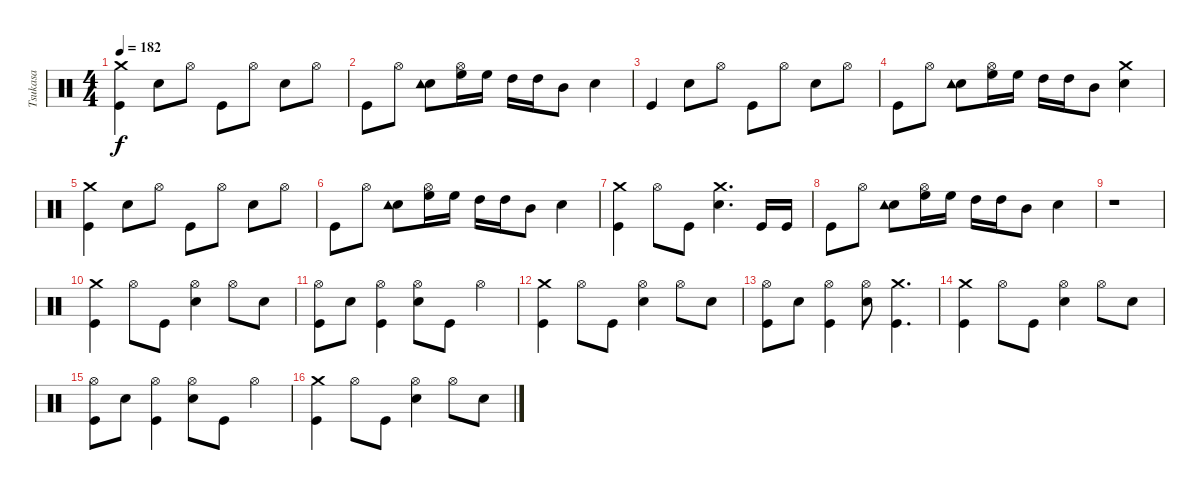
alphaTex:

\track ("Tsukasa" "Tsukasa") {instrument percussion}
\staff {score}
\articulation defaults
\ts (4 4)
\tempo 182
\clef neutral
\ks c
("Kick (hit)" "Crash medium (hit)").4{dy f} "Electric Snare (hit)".8 "Hi-Hat (open)".8 "Kick (hit)".8 "Hi-Hat (open)".8 "Electric Snare (hit)".8 "Hi-Hat (open)".8 |
"Kick (hit)".8 "Hi-Hat (open)".8 ("Electric Snare (hit)" "Tambourine (hit)").8 ("High Floor Tom (hit)" "Hi-Hat (open)").16 "High Floor Tom (hit)".16 "High Tom (hit)".16 "High Tom (hit)".16 "Mid Tom (hit)".8 "Electric Snare (hit)".4 |
"Kick (hit)".4 "Electric Snare (hit)".8 "Hi-Hat (open)".8 "Kick (hit)".8 "Hi-Hat (open)".8 "Electric Snare (hit)".8 "Hi-Hat (open)".8 |
"Kick (hit)".8 "Hi-Hat (open)".8 ("Electric Snare (hit)" "Tambourine (hit)").8 ("High Floor Tom (hit)" "Hi-Hat (open)").16 "High Floor Tom (hit)".16 "High Tom (hit)".16 "High Tom (hit)".16 "Mid Tom (hit)".8 ("Electric Snare (hit)" "Crash medium (hit)").4 |
("Kick (hit)" "Crash medium (hit)").4 "Electric Snare (hit)".8 "Hi-Hat (open)".8 "Kick (hit)".8 "Hi-Hat (open)".8 "Electric Snare (hit)".8 "Hi-Hat (open)".8 |
"Kick (hit)".8 "Hi-Hat (open)".8 ("Electric Snare (hit)" "Tambourine (hit)").8 ("High Floor Tom (hit)" "Hi-Hat (open)").16 "High Floor Tom (hit)".16 "High Tom (hit)".16 "High Tom (hit)".16 "Mid Tom (hit)".8 "Electric Snare (hit)".4 |
("Kick (hit)" "Crash medium (hit)").4 "Hi-Hat (open)".8 "Kick (hit)".8 ("Electric Snare (hit)" "Crash medium (hit)").4{d} "Kick (hit)".16 "Kick (hit)".16 |
"Kick (hit)".8 "Hi-Hat (open)".8 ("Electric Snare (hit)" "Tambourine (hit)").8 ("High Floor Tom (hit)" "Hi-Hat (open)").16 "High Floor Tom (hit)".16 "High Tom (hit)".16 "High Tom (hit)".16 "Mid Tom (hit)".8 "Electric Snare (hit)".4 |
r.1 |
("Kick (hit)" "Crash medium (hit)").4 "Hi-Hat (open)".8 "Kick (hit)".8 ("Electric Snare (hit)" "Hi-Hat (open)").4 "Hi-Hat (open)".8 "Electric Snare (hit)".8 |
("Kick (hit)" "Hi-Hat (open)").8 "Electric Snare (hit)".8 ("Kick (hit)" "Hi-Hat (open)").4 ("Electric Snare (hit)" "Hi-Hat (open)").8 "Kick (hit)".8 "Hi-Hat (open)".4 |
("Kick (hit)" "Crash medium (hit)").4 "Hi-Hat (open)".8 "Kick (hit)".8 ("Electric Snare (hit)" "Hi-Hat (open)").4 "Hi-Hat (open)".8 "Electric Snare (hit)".8 |
("Kick (hit)" "Hi-Hat (open)").8 "Electric Snare (hit)".8 ("Kick (hit)" "Hi-Hat (open)").4 ("Electric Snare (hit)" "Hi-Hat (open)").8 ("Kick (hit)" "Crash medium (hit)").4{d} |
("Kick (hit)" "Crash medium (hit)").4 "Hi-Hat (open)".8 "Kick (hit)".8 ("Electric Snare (hit)" "Hi-Hat (open)").4 "Hi-Hat (open)".8 "Electric Snare (hit)".8 |
("Kick (hit)" "Hi-Hat (open)").8 "Electric Snare (hit)".8 ("Kick (hit)" "Hi-Hat (open)").4 ("Electric Snare (hit)" "Hi-Hat (open)").8 "Kick (hit)".8 "Hi-Hat (open)".4 |
("Kick (hit)" "Crash medium (hit)").4 "Hi-Hat (open)".8 "Kick (hit)".8 ("Electric Snare (hit)" "Hi-Hat (open)").4 "Hi-Hat (open)".8 "Electric Snare (hit)".8
